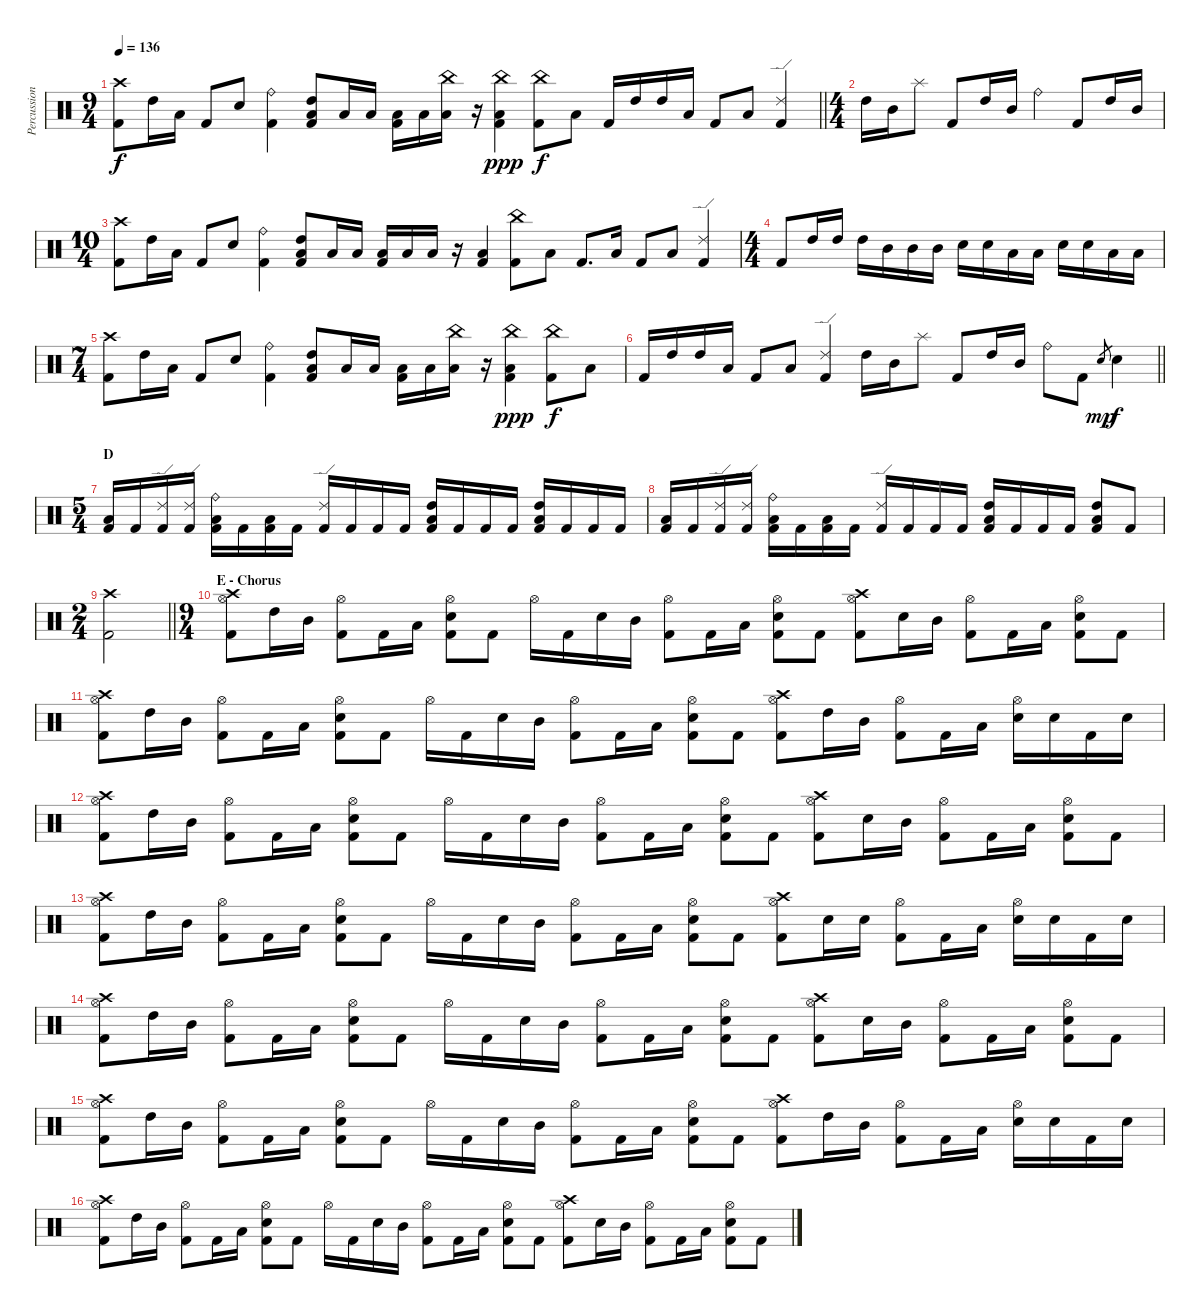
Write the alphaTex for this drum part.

\track ("Percussions" "Percussion") {instrument percussion}
\staff {score}
\articulation defaults
\ts (9 4)
\tempo 136
\clef neutral
\barLineRight lightlight
\ks c
("Crash high (hit)" "Kick (hit) 2").8{dy f} "High Tom (hit)".16 "Low Tom (hit)".16 "Kick (hit) 2".8 "Snare (hit) 2".8 ("Ride (bell)" "Kick (hit) 2").4 ("Low Tom (hit)" "High Tom (hit)" "Kick (hit) 2").8 "Low Tom (hit)".16 "Low Tom (hit)".16 ("Low Tom (hit)" "Kick (hit) 2").16 "Low Tom (hit)".16 ("China (hit)" "Low Tom (hit)").16 r.16 ("China (hit)" "Low Tom (hit)" "Kick (hit) 2").4{dy ppp} ("China (hit)" "Kick (hit) 2").8{dy f} "Low Tom (hit)".8 "Kick (hit) 2".16 "High Tom (hit)".16 "High Tom (hit)".16 "Low Tom (hit)".16 "Kick (hit) 2".8 "Low Tom (hit)".8 ("Ride (edge) 2" "Kick (hit) 2").4 |
\ts (4 4)
"High Tom (hit)".16 "Mid Tom (hit)".16 "Splash (hit)".8 "Kick (hit) 2".8 "High Tom (hit)".16 "Mid Tom (hit)".16 "Ride (bell)".4 "Kick (hit) 2".8 "High Tom (hit)".16 "Mid Tom (hit)".16 |
\ts (10 4)
("Crash high (hit)" "Kick (hit) 2").8 "High Tom (hit)".16 "Low Tom (hit)".16 "Kick (hit) 2".8 "Snare (hit) 2".8 ("Ride (bell)" "Kick (hit) 2").4 ("Low Tom (hit)" "High Tom (hit)" "Kick (hit) 2").8 "Low Tom (hit)".16 "Low Tom (hit)".16 ("Low Tom (hit)" "Kick (hit) 2").16 "Low Tom (hit)".16 "Low Tom (hit)".16 r.16 ("Low Tom (hit)" "Kick (hit) 2").4 ("China (hit)" "Kick (hit) 2").8 "Low Tom (hit)".8 "Kick (hit) 2".8{d} "Low Tom (hit)".16 "Kick (hit) 2".8 "Low Tom (hit)".8 ("Ride (edge) 2" "Kick (hit) 2").4 |
\ts (4 4)
"Kick (hit) 2".8 "High Tom (hit)".16 "High Tom (hit)".16 "High Tom (hit)".16 "Mid Tom (hit)".16 "Mid Tom (hit)".16 "Mid Tom (hit)".16 "Snare (hit) 2".16 "Snare (hit) 2".16 "Low Floor Tom (hit)".16 "Low Floor Tom (hit)".16 "Snare (hit) 2".16 "Snare (hit) 2".16 "Low Floor Tom (hit)".16 "Low Floor Tom (hit)".16 |
\ts (7 4)
("Crash high (hit)" "Kick (hit) 2").8 "High Tom (hit)".16 "Low Tom (hit)".16 "Kick (hit) 2".8 "Snare (hit) 2".8 ("Ride (bell)" "Kick (hit) 2").4 ("Low Tom (hit)" "High Tom (hit)" "Kick (hit) 2").8 "Low Tom (hit)".16 "Low Tom (hit)".16 ("Low Tom (hit)" "Kick (hit) 2").16 "Low Tom (hit)".16 ("China (hit)" "Low Tom (hit)").16 r.16 ("China (hit)" "Low Tom (hit)" "Kick (hit) 2").4{dy ppp} ("China (hit)" "Kick (hit) 2").8{dy f} "Low Tom (hit)".8 |
\barLineRight lightlight "Kick (hit) 2".16 "High Tom (hit)".16 "High Tom (hit)".16 "Low Tom (hit)".16 "Kick (hit) 2".8 "Low Tom (hit)".8
("Ride (edge) 2" "Kick (hit) 2").4 "High Tom (hit)".16 "Mid Tom (hit)".16 "Splash (hit)".8 "Kick (hit) 2".8 "High Tom (hit)".16 "Mid Tom (hit)".16 "Ride (bell)".8 "Kick (hit) 2".8 "Snare (hit) 2".8{gr dy mp} "Snare (hit) 2".4{dy f} |
\ts (5 4)
\section ("" "D")
("Low Tom (hit)" "Kick (hit) 2").16 "Kick (hit) 2".16 ("Ride (edge) 2" "Kick (hit) 2").16 ("Ride (edge) 2" "Kick (hit) 2").16 ("Ride (bell)" "Low Tom (hit)" "Kick (hit) 2").16 "Kick (hit) 2".16 ("Low Tom (hit)" "Kick (hit) 2").16 "Kick (hit) 2".16 ("Ride (edge) 2" "Kick (hit) 2").16 "Kick (hit) 2".16 "Kick (hit) 2".16 "Kick (hit) 2".16 ("Low Tom (hit)" "High Tom (hit)" "Kick (hit) 2").16 "Kick (hit) 2".16 "Kick (hit) 2".16 "Kick (hit) 2".16 ("Low Tom (hit)" "High Tom (hit)" "Kick (hit) 2").16 "Kick (hit) 2".16 "Kick (hit) 2".16 "Kick (hit) 2".16 |
("Low Tom (hit)" "Kick (hit) 2").16 "Kick (hit) 2".16 ("Ride (edge) 2" "Kick (hit) 2").16 ("Ride (edge) 2" "Kick (hit) 2").16 ("Ride (bell)" "Low Tom (hit)" "Kick (hit) 2").16 "Kick (hit) 2".16 ("Low Tom (hit)" "Kick (hit) 2").16 "Kick (hit) 2".16 ("Ride (edge) 2" "Kick (hit) 2").16 "Kick (hit) 2".16 "Kick (hit) 2".16 "Kick (hit) 2".16 ("Low Tom (hit)" "High Tom (hit)" "Kick (hit) 2").16 "Kick (hit) 2".16 "Kick (hit) 2".16 "Kick (hit) 2".16 ("Low Tom (hit)" "High Tom (hit)" "Kick (hit) 2").8 "Kick (hit) 2".8 |
\ts (2 4)
\barLineRight lightlight
("Crash high (hit)" "Kick (hit) 2").2 |
\ts (9 4)
\section ("" "E - Chorus")
("Crash high (hit)" "Hi-Hat (open)" "Kick (hit) 2").8 "High Tom (hit)".16 "Mid Tom (hit)".16 ("Hi-Hat (open)" "Kick (hit) 2").8 "Kick (hit) 2".16 "Low Tom (hit)".16 ("Hi-Hat (open)" "Snare (hit) 2" "Kick (hit) 2").8 "Kick (hit) 2".8 "Hi-Hat (open)".16 "Kick (hit) 2".16 "Snare (hit) 2".16 "Mid Tom (hit)".16 ("Hi-Hat (open)" "Kick (hit) 2").8 "Kick (hit) 2".16 "Low Tom (hit)".16 ("Hi-Hat (open)" "Snare (hit) 2" "Kick (hit) 2").8 "Kick (hit) 2".8 ("Crash high (hit)" "Hi-Hat (open)" "Kick (hit) 2").8 "Snare (hit) 2".16 "Mid Tom (hit)".16 ("Hi-Hat (open)" "Kick (hit) 2").8 "Kick (hit) 2".16 "Low Tom (hit)".16 ("Hi-Hat (open)" "Snare (hit) 2" "Kick (hit) 2").8 "Kick (hit) 2".8 |
("Crash high (hit)" "Hi-Hat (open)" "Kick (hit) 2").8 "High Tom (hit)".16 "Mid Tom (hit)".16 ("Hi-Hat (open)" "Kick (hit) 2").8 "Kick (hit) 2".16 "Low Tom (hit)".16 ("Hi-Hat (open)" "Snare (hit) 2" "Kick (hit) 2").8 "Kick (hit) 2".8 "Hi-Hat (open)".16 "Kick (hit) 2".16 "Snare (hit) 2".16 "Mid Tom (hit)".16 ("Hi-Hat (open)" "Kick (hit) 2").8 "Kick (hit) 2".16 "Low Tom (hit)".16 ("Hi-Hat (open)" "Snare (hit) 2" "Kick (hit) 2").8 "Kick (hit) 2".8 ("Crash high (hit)" "Hi-Hat (open)" "Kick (hit) 2").8 "High Tom (hit)".16 "Mid Tom (hit)".16 ("Hi-Hat (open)" "Kick (hit) 2").8 "Kick (hit) 2".16 "Low Tom (hit)".16 ("Hi-Hat (open)" "Snare (hit) 2").16 "Snare (hit) 2".16 "Kick (hit) 2".16 "Snare (hit) 2".16 |
("Crash high (hit)" "Hi-Hat (open)" "Kick (hit) 2").8 "High Tom (hit)".16 "Mid Tom (hit)".16 ("Hi-Hat (open)" "Kick (hit) 2").8 "Kick (hit) 2".16 "Low Tom (hit)".16 ("Hi-Hat (open)" "Snare (hit) 2" "Kick (hit) 2").8 "Kick (hit) 2".8 "Hi-Hat (open)".16 "Kick (hit) 2".16 "Snare (hit) 2".16 "Mid Tom (hit)".16 ("Hi-Hat (open)" "Kick (hit) 2").8 "Kick (hit) 2".16 "Low Tom (hit)".16 ("Hi-Hat (open)" "Snare (hit) 2" "Kick (hit) 2").8 "Kick (hit) 2".8 ("Crash high (hit)" "Hi-Hat (open)" "Kick (hit) 2").8 "Snare (hit) 2".16 "Mid Tom (hit)".16 ("Hi-Hat (open)" "Kick (hit) 2").8 "Kick (hit) 2".16 "Low Tom (hit)".16 ("Hi-Hat (open)" "Snare (hit) 2" "Kick (hit) 2").8 "Kick (hit) 2".8 |
("Crash high (hit)" "Hi-Hat (open)" "Kick (hit) 2").8 "High Tom (hit)".16 "Mid Tom (hit)".16 ("Hi-Hat (open)" "Kick (hit) 2").8 "Kick (hit) 2".16 "Low Tom (hit)".16 ("Hi-Hat (open)" "Snare (hit) 2" "Kick (hit) 2").8 "Kick (hit) 2".8 "Hi-Hat (open)".16 "Kick (hit) 2".16 "Snare (hit) 2".16 "Mid Tom (hit)".16 ("Hi-Hat (open)" "Kick (hit) 2").8 "Kick (hit) 2".16 "Low Tom (hit)".16 ("Hi-Hat (open)" "Snare (hit) 2" "Kick (hit) 2").8 "Kick (hit) 2".8 ("Crash high (hit)" "Hi-Hat (open)" "Kick (hit) 2").8 "Snare (hit) 2".16 "Snare (hit) 2".16 ("Hi-Hat (open)" "Kick (hit) 2").8 "Kick (hit) 2".16 "Low Tom (hit)".16 ("Hi-Hat (open)" "Snare (hit) 2").16 "Snare (hit) 2".16 "Kick (hit) 2".16 "Snare (hit) 2".16 |
("Crash high (hit)" "Hi-Hat (open)" "Kick (hit) 2").8 "High Tom (hit)".16 "Mid Tom (hit)".16 ("Hi-Hat (open)" "Kick (hit) 2").8 "Kick (hit) 2".16 "Low Tom (hit)".16 ("Hi-Hat (open)" "Snare (hit) 2" "Kick (hit) 2").8 "Kick (hit) 2".8 "Hi-Hat (open)".16 "Kick (hit) 2".16 "Snare (hit) 2".16 "Mid Tom (hit)".16 ("Hi-Hat (open)" "Kick (hit) 2").8 "Kick (hit) 2".16 "Low Tom (hit)".16 ("Hi-Hat (open)" "Snare (hit) 2" "Kick (hit) 2").8 "Kick (hit) 2".8 ("Crash high (hit)" "Hi-Hat (open)" "Kick (hit) 2").8 "Snare (hit) 2".16 "Mid Tom (hit)".16 ("Hi-Hat (open)" "Kick (hit) 2").8 "Kick (hit) 2".16 "Low Tom (hit)".16 ("Hi-Hat (open)" "Snare (hit) 2" "Kick (hit) 2").8 "Kick (hit) 2".8 |
("Crash high (hit)" "Hi-Hat (open)" "Kick (hit) 2").8 "High Tom (hit)".16 "Mid Tom (hit)".16 ("Hi-Hat (open)" "Kick (hit) 2").8 "Kick (hit) 2".16 "Low Tom (hit)".16 ("Hi-Hat (open)" "Snare (hit) 2" "Kick (hit) 2").8 "Kick (hit) 2".8 "Hi-Hat (open)".16 "Kick (hit) 2".16 "Snare (hit) 2".16 "Mid Tom (hit)".16 ("Hi-Hat (open)" "Kick (hit) 2").8 "Kick (hit) 2".16 "Low Tom (hit)".16 ("Hi-Hat (open)" "Snare (hit) 2" "Kick (hit) 2").8 "Kick (hit) 2".8 ("Crash high (hit)" "Hi-Hat (open)" "Kick (hit) 2").8 "High Tom (hit)".16 "Mid Tom (hit)".16 ("Hi-Hat (open)" "Kick (hit) 2").8 "Kick (hit) 2".16 "Low Tom (hit)".16 ("Hi-Hat (open)" "Snare (hit) 2").16 "Snare (hit) 2".16 "Kick (hit) 2".16 "Snare (hit) 2".16 |
("Crash high (hit)" "Hi-Hat (open)" "Kick (hit) 2").8 "High Tom (hit)".16 "Mid Tom (hit)".16 ("Hi-Hat (open)" "Kick (hit) 2").8 "Kick (hit) 2".16 "Low Tom (hit)".16 ("Hi-Hat (open)" "Snare (hit) 2" "Kick (hit) 2").8 "Kick (hit) 2".8 "Hi-Hat (open)".16 "Kick (hit) 2".16 "Snare (hit) 2".16 "Mid Tom (hit)".16 ("Hi-Hat (open)" "Kick (hit) 2").8 "Kick (hit) 2".16 "Low Tom (hit)".16 ("Hi-Hat (open)" "Snare (hit) 2" "Kick (hit) 2").8 "Kick (hit) 2".8 ("Crash high (hit)" "Hi-Hat (open)" "Kick (hit) 2").8 "Snare (hit) 2".16 "Mid Tom (hit)".16 ("Hi-Hat (open)" "Kick (hit) 2").8 "Kick (hit) 2".16 "Low Tom (hit)".16 ("Hi-Hat (open)" "Snare (hit) 2" "Kick (hit) 2").8 "Kick (hit) 2".8
